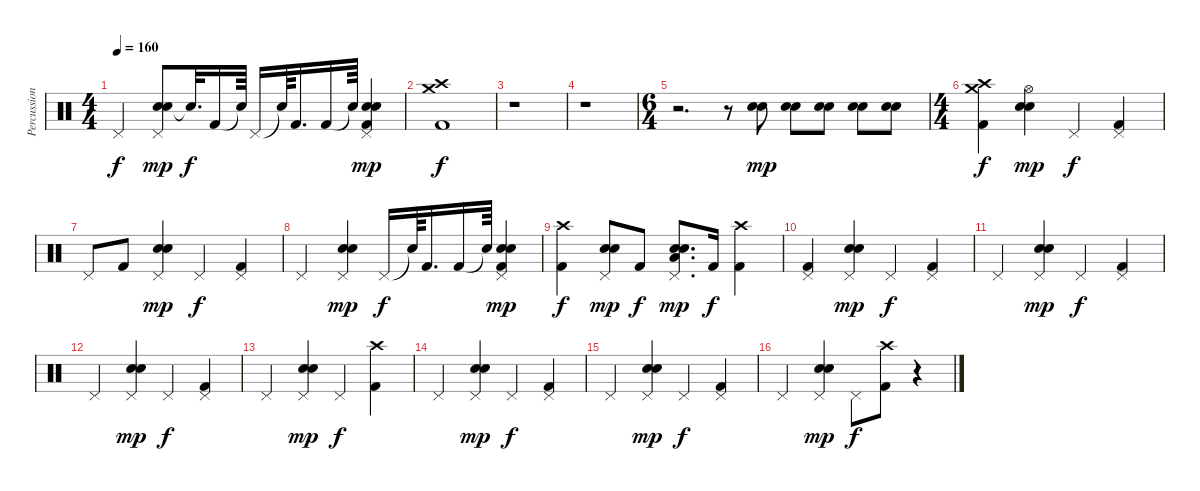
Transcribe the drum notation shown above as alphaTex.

\track ("Percussion" "Percussion") {instrument percussion}
\staff {score}
\articulation defaults
\ts (4 4)
\tempo 160
\clef neutral
\ks c "Pedal Hi-Hat (hit)".4{dy f}
("Snare (hit) 2" "Electric Snare (hit)" "Pedal Hi-Hat (hit)").8{dy mp} "Snare (hit)"{t}.32{d dy f} "Kick (hit) 2".16 "Snare (hit)"{t}.64 "Pedal Hi-Hat (hit)".16 "Snare (hit)"{t}.64 "Kick (hit) 2".16{d} "Kick (hit) 2".16 "Snare (hit)"{t}.64 ("Snare (hit) 2" "Electric Snare (hit)" "Pedal Hi-Hat (hit)" "Kick (hit) 2").4{dy mp} |
("Kick (hit) 2" "Crash high (hit)" "Crash medium (hit)").1{dy f} |
r.1 |
r.1 |
\ts (6 4)
r.2{d} r.8 ("Snare (hit) 2" "Electric Snare (hit)").8{dy mp} ("Snare (hit) 2" "Electric Snare (hit)").8 ("Snare (hit) 2" "Electric Snare (hit)").8 ("Snare (hit) 2" "Electric Snare (hit)").8 ("Snare (hit) 2" "Electric Snare (hit)").8 |
\ts (4 4)
("Crash medium (hit)" "Kick (hit) 2" "Crash high (hit)").4{dy f} ("Snare (hit) 2" "Electric Snare (hit)" "Hi-Hat (open)").4{dy mp} "Pedal Hi-Hat (hit)".4{dy f} ("Pedal Hi-Hat (hit)" "Kick (hit) 2").4 |
"Pedal Hi-Hat (hit)".8 "Kick (hit) 2".8 ("Pedal Hi-Hat (hit)" "Snare (hit) 2" "Electric Snare (hit)").4{dy mp} "Pedal Hi-Hat (hit)".4{dy f} ("Pedal Hi-Hat (hit)" "Kick (hit) 2").4 |
"Pedal Hi-Hat (hit)".4 ("Pedal Hi-Hat (hit)" "Snare (hit) 2" "Electric Snare (hit)").4{dy mp} "Pedal Hi-Hat (hit)".16{dy f} "Snare (hit)"{t}.64 "Kick (hit) 2".16{d} "Kick (hit) 2".16 "Snare (hit)"{t}.64 ("Pedal Hi-Hat (hit)" "Snare (hit) 2" "Kick (hit) 2" "Electric Snare (hit)").4{dy mp} |
("Kick (hit) 2" "Crash high (hit)").4{dy f} ("Pedal Hi-Hat (hit)" "Electric Snare (hit)" "Snare (hit) 2").8{dy mp} "Kick (hit) 2".8{dy f} ("Pedal Hi-Hat (hit)" "Snare (hit) 2" "Low Tom (hit)" "Electric Snare (hit)").8{d dy mp} "Kick (hit) 2".16{dy f} ("Crash high (hit)" "Kick (hit) 2").4 |
("Pedal Hi-Hat (hit)" "Kick (hit) 2").4 ("Pedal Hi-Hat (hit)" "Snare (hit) 2" "Electric Snare (hit)").4{dy mp} "Pedal Hi-Hat (hit)".4{dy f} ("Kick (hit) 2" "Pedal Hi-Hat (hit)").4 |
"Pedal Hi-Hat (hit)".4 ("Snare (hit) 2" "Pedal Hi-Hat (hit)" "Electric Snare (hit)").4{dy mp} "Pedal Hi-Hat (hit)".4{dy f} ("Kick (hit) 2" "Pedal Hi-Hat (hit)").4 |
"Pedal Hi-Hat (hit)".4 ("Snare (hit) 2" "Pedal Hi-Hat (hit)" "Electric Snare (hit)").4{dy mp} "Pedal Hi-Hat (hit)".4{dy f} ("Kick (hit) 2" "Pedal Hi-Hat (hit)").4 |
"Pedal Hi-Hat (hit)".4 ("Snare (hit) 2" "Pedal Hi-Hat (hit)" "Electric Snare (hit)").4{dy mp} "Pedal Hi-Hat (hit)".4{dy f} ("Crash high (hit)" "Kick (hit) 2").4 |
"Pedal Hi-Hat (hit)".4 ("Pedal Hi-Hat (hit)" "Snare (hit) 2" "Electric Snare (hit)").4{dy mp} "Pedal Hi-Hat (hit)".4{dy f} ("Kick (hit) 2" "Pedal Hi-Hat (hit)").4 |
"Pedal Hi-Hat (hit)".4 ("Snare (hit) 2" "Pedal Hi-Hat (hit)" "Electric Snare (hit)").4{dy mp} "Pedal Hi-Hat (hit)".4{dy f} ("Pedal Hi-Hat (hit)" "Kick (hit) 2").4 |
"Pedal Hi-Hat (hit)".4 ("Pedal Hi-Hat (hit)" "Snare (hit) 2" "Electric Snare (hit)").4{dy mp} "Pedal Hi-Hat (hit)".8{dy f} ("Crash high (hit)" "Kick (hit) 2").8 r.4
